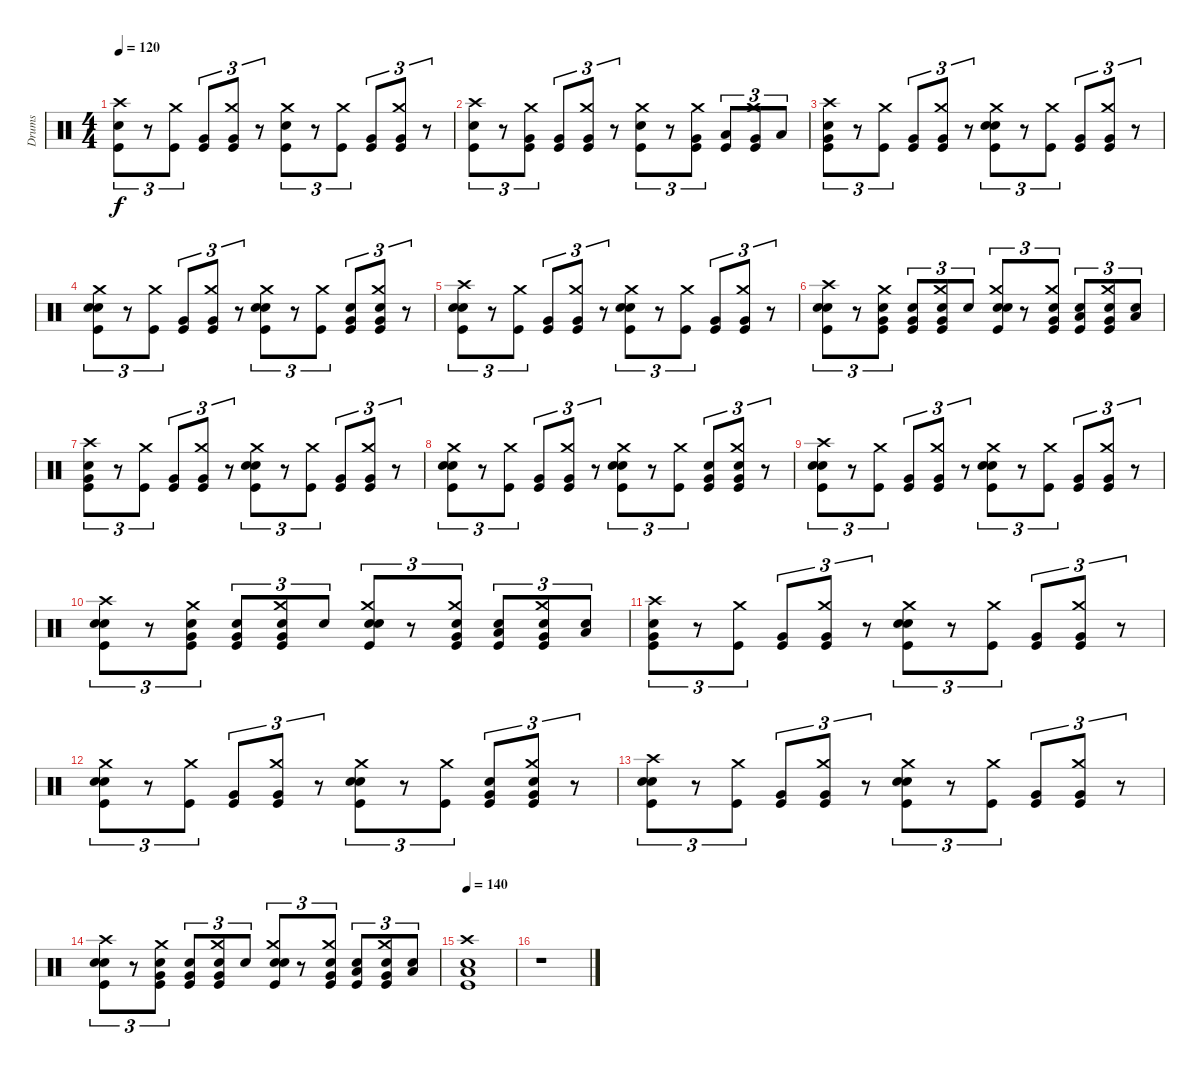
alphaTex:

\track ("Drums" "Drums") {instrument percussion}
\staff {score}
\articulation defaults
\ts (4 4)
\tempo 120
\clef neutral
\ks c
("Crash high (hit)" "Snare (hit) 2" "Kick (hit)").8{tu (3 2) dy f} r.8{tu (3 2)} ("Crash medium (hit)" "Kick (hit)").8{tu (3 2)} ("Very Low Tom (hit)" "Kick (hit)").8{tu (3 2)} ("Crash medium (hit)" "Very Low Tom (hit)" "Kick (hit)").8{tu (3 2)} r.8{tu (3 2)} ("Crash medium (hit)" "Snare (hit) 2" "Kick (hit)").8{tu (3 2)} r.8{tu (3 2)} ("Crash medium (hit)" "Kick (hit)").8{tu (3 2)} ("Very Low Tom (hit)" "Kick (hit)").8{tu (3 2)} ("Crash medium (hit)" "Very Low Tom (hit)" "Kick (hit)").8{tu (3 2)} r.8{tu (3 2)} |
("Crash high (hit)" "Snare (hit) 2" "Kick (hit)").8{tu (3 2)} r.8{tu (3 2)} ("Crash medium (hit)" "Very Low Tom (hit)" "Kick (hit)").8{tu (3 2)} ("Very Low Tom (hit)" "Kick (hit)").8{tu (3 2)} ("Crash medium (hit)" "Very Low Tom (hit)" "Kick (hit)").8{tu (3 2)} r.8{tu (3 2)} ("Crash medium (hit)" "Snare (hit) 2" "Kick (hit)").8{tu (3 2)} r.8{tu (3 2)} ("Crash medium (hit)" "Very Low Tom (hit)" "Kick (hit)").8{tu (3 2)} ("Low Tom (hit)" "Kick (hit)").8{tu (3 2)} ("Crash medium (hit)" "Very Low Tom (hit)" "Kick (hit)").8{tu (3 2)} "Low Floor Tom (hit)".8{tu (3 2)} |
("Crash high (hit)" "Electric Snare (hit)" "Very Low Tom (hit)" "Kick (hit)").8{tu (3 2)} r.8{tu (3 2)} ("Crash medium (hit)" "Kick (hit)").8{tu (3 2)} ("Very Low Tom (hit)" "Kick (hit)").8{tu (3 2)} ("Crash medium (hit)" "Very Low Tom (hit)" "Kick (hit)").8{tu (3 2)} r.8{tu (3 2)} ("Crash medium (hit)" "Electric Snare (hit)" "Snare (hit) 2" "Kick (hit)").8{tu (3 2)} r.8{tu (3 2)} ("Crash medium (hit)" "Kick (hit)").8{tu (3 2)} ("Very Low Tom (hit)" "Kick (hit)").8{tu (3 2)} ("Crash medium (hit)" "Very Low Tom (hit)" "Kick (hit)").8{tu (3 2)} r.8{tu (3 2)} |
("Crash medium (hit)" "Electric Snare (hit)" "Snare (hit) 2" "Kick (hit)").8{tu (3 2)} r.8{tu (3 2)} ("Crash medium (hit)" "Kick (hit)").8{tu (3 2)} ("Very Low Tom (hit)" "Kick (hit)").8{tu (3 2)} ("Crash medium (hit)" "Very Low Tom (hit)" "Kick (hit)").8{tu (3 2)} r.8{tu (3 2)} ("Crash medium (hit)" "Electric Snare (hit)" "Snare (hit) 2" "Kick (hit)").8{tu (3 2)} r.8{tu (3 2)} ("Crash medium (hit)" "Kick (hit)").8{tu (3 2)} ("Snare (hit) 2" "Very Low Tom (hit)" "Kick (hit)").8{tu (3 2)} ("Crash medium (hit)" "Snare (hit) 2" "Very Low Tom (hit)" "Kick (hit)").8{tu (3 2)} r.8{tu (3 2)} |
("Crash high (hit)" "Electric Snare (hit)" "Snare (hit) 2" "Kick (hit)").8{tu (3 2)} r.8{tu (3 2)} ("Crash medium (hit)" "Kick (hit)").8{tu (3 2)} ("Very Low Tom (hit)" "Kick (hit)").8{tu (3 2)} ("Crash medium (hit)" "Very Low Tom (hit)" "Kick (hit)").8{tu (3 2)} r.8{tu (3 2)} ("Crash medium (hit)" "Electric Snare (hit)" "Snare (hit) 2" "Kick (hit)").8{tu (3 2)} r.8{tu (3 2)} ("Crash medium (hit)" "Kick (hit)").8{tu (3 2)} ("Very Low Tom (hit)" "Kick (hit)").8{tu (3 2)} ("Crash medium (hit)" "Very Low Tom (hit)" "Kick (hit)").8{tu (3 2)} r.8{tu (3 2)} |
("Crash high (hit)" "Electric Snare (hit)" "Snare (hit) 2" "Kick (hit)").8{tu (3 2)} r.8{tu (3 2)} ("Crash medium (hit)" "Snare (hit) 2" "Very Low Tom (hit)" "Kick (hit)").8{tu (3 2)} ("Snare (hit) 2" "Very Low Tom (hit)" "Kick (hit)").8{tu (3 2)} ("Crash medium (hit)" "Snare (hit) 2" "Very Low Tom (hit)" "Kick (hit)").8{tu (3 2)} "Snare (hit) 2".8{tu (3 2)} ("Crash medium (hit)" "Electric Snare (hit)" "Snare (hit) 2" "Kick (hit)").8{tu (3 2)} r.8{tu (3 2)} ("Crash medium (hit)" "Snare (hit) 2" "Very Low Tom (hit)" "Kick (hit)").8{tu (3 2)} ("Snare (hit) 2" "Low Tom (hit)" "Kick (hit)").8{tu (3 2)} ("Crash medium (hit)" "Snare (hit) 2" "Very Low Tom (hit)" "Kick (hit)").8{tu (3 2)} ("Snare (hit) 2" "Low Floor Tom (hit)").8{tu (3 2)} |
("Crash high (hit)" "Electric Snare (hit)" "Very Low Tom (hit)" "Kick (hit)").8{tu (3 2)} r.8{tu (3 2)} ("Crash medium (hit)" "Kick (hit)").8{tu (3 2)} ("Very Low Tom (hit)" "Kick (hit)").8{tu (3 2)} ("Crash medium (hit)" "Very Low Tom (hit)" "Kick (hit)").8{tu (3 2)} r.8{tu (3 2)} ("Crash medium (hit)" "Electric Snare (hit)" "Snare (hit) 2" "Kick (hit)").8{tu (3 2)} r.8{tu (3 2)} ("Crash medium (hit)" "Kick (hit)").8{tu (3 2)} ("Very Low Tom (hit)" "Kick (hit)").8{tu (3 2)} ("Crash medium (hit)" "Very Low Tom (hit)" "Kick (hit)").8{tu (3 2)} r.8{tu (3 2)} |
("Crash medium (hit)" "Electric Snare (hit)" "Snare (hit) 2" "Kick (hit)").8{tu (3 2)} r.8{tu (3 2)} ("Crash medium (hit)" "Kick (hit)").8{tu (3 2)} ("Very Low Tom (hit)" "Kick (hit)").8{tu (3 2)} ("Crash medium (hit)" "Very Low Tom (hit)" "Kick (hit)").8{tu (3 2)} r.8{tu (3 2)} ("Crash medium (hit)" "Electric Snare (hit)" "Snare (hit) 2" "Kick (hit)").8{tu (3 2)} r.8{tu (3 2)} ("Crash medium (hit)" "Kick (hit)").8{tu (3 2)} ("Snare (hit) 2" "Very Low Tom (hit)" "Kick (hit)").8{tu (3 2)} ("Crash medium (hit)" "Snare (hit) 2" "Very Low Tom (hit)" "Kick (hit)").8{tu (3 2)} r.8{tu (3 2)} |
("Crash high (hit)" "Electric Snare (hit)" "Snare (hit) 2" "Kick (hit)").8{tu (3 2)} r.8{tu (3 2)} ("Crash medium (hit)" "Kick (hit)").8{tu (3 2)} ("Very Low Tom (hit)" "Kick (hit)").8{tu (3 2)} ("Crash medium (hit)" "Very Low Tom (hit)" "Kick (hit)").8{tu (3 2)} r.8{tu (3 2)} ("Crash medium (hit)" "Electric Snare (hit)" "Snare (hit) 2" "Kick (hit)").8{tu (3 2)} r.8{tu (3 2)} ("Crash medium (hit)" "Kick (hit)").8{tu (3 2)} ("Very Low Tom (hit)" "Kick (hit)").8{tu (3 2)} ("Crash medium (hit)" "Very Low Tom (hit)" "Kick (hit)").8{tu (3 2)} r.8{tu (3 2)} |
("Crash high (hit)" "Electric Snare (hit)" "Snare (hit) 2" "Kick (hit)").8{tu (3 2)} r.8{tu (3 2)} ("Crash medium (hit)" "Snare (hit) 2" "Very Low Tom (hit)" "Kick (hit)").8{tu (3 2)} ("Snare (hit) 2" "Very Low Tom (hit)" "Kick (hit)").8{tu (3 2)} ("Crash medium (hit)" "Snare (hit) 2" "Very Low Tom (hit)" "Kick (hit)").8{tu (3 2)} "Snare (hit) 2".8{tu (3 2)} ("Crash medium (hit)" "Electric Snare (hit)" "Snare (hit) 2" "Kick (hit)").8{tu (3 2)} r.8{tu (3 2)} ("Crash medium (hit)" "Snare (hit) 2" "Very Low Tom (hit)" "Kick (hit)").8{tu (3 2)} ("Snare (hit) 2" "Low Tom (hit)" "Kick (hit)").8{tu (3 2)} ("Crash medium (hit)" "Snare (hit) 2" "Very Low Tom (hit)" "Kick (hit)").8{tu (3 2)} ("Snare (hit) 2" "Low Floor Tom (hit)").8{tu (3 2)} |
("Crash high (hit)" "Electric Snare (hit)" "Very Low Tom (hit)" "Kick (hit)").8{tu (3 2)} r.8{tu (3 2)} ("Crash medium (hit)" "Kick (hit)").8{tu (3 2)} ("Very Low Tom (hit)" "Kick (hit)").8{tu (3 2)} ("Crash medium (hit)" "Very Low Tom (hit)" "Kick (hit)").8{tu (3 2)} r.8{tu (3 2)} ("Crash medium (hit)" "Electric Snare (hit)" "Snare (hit) 2" "Kick (hit)").8{tu (3 2)} r.8{tu (3 2)} ("Crash medium (hit)" "Kick (hit)").8{tu (3 2)} ("Very Low Tom (hit)" "Kick (hit)").8{tu (3 2)} ("Crash medium (hit)" "Very Low Tom (hit)" "Kick (hit)").8{tu (3 2)} r.8{tu (3 2)} |
("Crash medium (hit)" "Electric Snare (hit)" "Snare (hit) 2" "Kick (hit)").8{tu (3 2)} r.8{tu (3 2)} ("Crash medium (hit)" "Kick (hit)").8{tu (3 2)} ("Very Low Tom (hit)" "Kick (hit)").8{tu (3 2)} ("Crash medium (hit)" "Very Low Tom (hit)" "Kick (hit)").8{tu (3 2)} r.8{tu (3 2)} ("Crash medium (hit)" "Electric Snare (hit)" "Snare (hit) 2" "Kick (hit)").8{tu (3 2)} r.8{tu (3 2)} ("Crash medium (hit)" "Kick (hit)").8{tu (3 2)} ("Snare (hit) 2" "Very Low Tom (hit)" "Kick (hit)").8{tu (3 2)} ("Crash medium (hit)" "Snare (hit) 2" "Very Low Tom (hit)" "Kick (hit)").8{tu (3 2)} r.8{tu (3 2)} |
("Crash high (hit)" "Electric Snare (hit)" "Snare (hit) 2" "Kick (hit)").8{tu (3 2)} r.8{tu (3 2)} ("Crash medium (hit)" "Kick (hit)").8{tu (3 2)} ("Very Low Tom (hit)" "Kick (hit)").8{tu (3 2)} ("Crash medium (hit)" "Very Low Tom (hit)" "Kick (hit)").8{tu (3 2)} r.8{tu (3 2)} ("Crash medium (hit)" "Electric Snare (hit)" "Snare (hit) 2" "Kick (hit)").8{tu (3 2)} r.8{tu (3 2)} ("Crash medium (hit)" "Kick (hit)").8{tu (3 2)} ("Very Low Tom (hit)" "Kick (hit)").8{tu (3 2)} ("Crash medium (hit)" "Very Low Tom (hit)" "Kick (hit)").8{tu (3 2)} r.8{tu (3 2)} |
("Crash high (hit)" "Electric Snare (hit)" "Snare (hit) 2" "Kick (hit)").8{tu (3 2)} r.8{tu (3 2)} ("Crash medium (hit)" "Snare (hit) 2" "Very Low Tom (hit)" "Kick (hit)").8{tu (3 2)} ("Snare (hit) 2" "Very Low Tom (hit)" "Kick (hit)").8{tu (3 2)} ("Crash medium (hit)" "Snare (hit) 2" "Very Low Tom (hit)" "Kick (hit)").8{tu (3 2)} "Snare (hit) 2".8{tu (3 2)} ("Crash medium (hit)" "Electric Snare (hit)" "Snare (hit) 2" "Kick (hit)").8{tu (3 2)} r.8{tu (3 2)} ("Crash medium (hit)" "Snare (hit) 2" "Very Low Tom (hit)" "Kick (hit)").8{tu (3 2)} ("Snare (hit) 2" "Low Tom (hit)" "Kick (hit)").8{tu (3 2)} ("Crash medium (hit)" "Snare (hit) 2" "Very Low Tom (hit)" "Kick (hit)").8{tu (3 2)} ("Snare (hit) 2" "Low Floor Tom (hit)").8{tu (3 2)} |
\tempo 140
("Crash high (hit)" "Snare (hit) 2" "Low Floor Tom (hit)" "Kick (hit)").1 |
r.1
